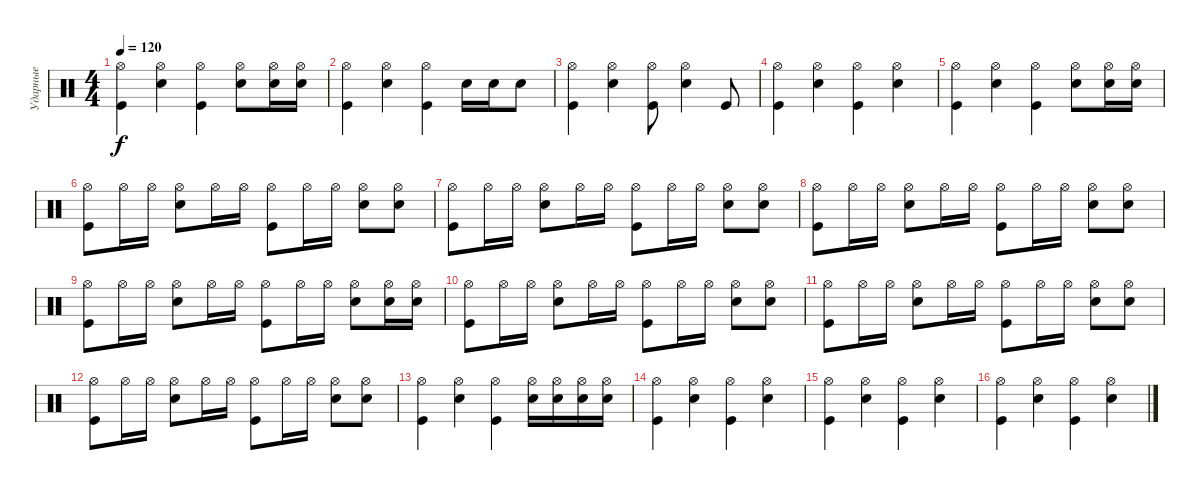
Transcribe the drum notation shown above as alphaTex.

\track ("Ударные" "Ударные") {instrument percussion}
\staff {score}
\articulation defaults
\ts (4 4)
\tempo 120
\clef neutral
\ks c
("Hi-Hat (open)" "Kick (hit)").4{dy f} ("Hi-Hat (open)" "Snare (hit) 2").4 ("Hi-Hat (open)" "Kick (hit)").4 ("Hi-Hat (open)" "Snare (hit) 2").8 ("Hi-Hat (open)" "Snare (hit) 2").16 ("Hi-Hat (open)" "Snare (hit) 2").16 |
("Kick (hit)" "Hi-Hat (open)").4 ("Snare (hit) 2" "Hi-Hat (open)").4 ("Kick (hit)" "Hi-Hat (open)").4 "Snare (hit) 2".16 "Snare (hit) 2".16 "Snare (hit) 2".8 |
("Hi-Hat (open)" "Kick (hit)").4 ("Hi-Hat (open)" "Snare (hit) 2").4 ("Hi-Hat (open)" "Kick (hit)").8 ("Hi-Hat (open)" "Snare (hit) 2").4 "Kick (hit)".8 |
("Hi-Hat (open)" "Kick (hit)").4 ("Hi-Hat (open)" "Snare (hit) 2").4 ("Hi-Hat (open)" "Kick (hit)").4 ("Hi-Hat (open)" "Snare (hit) 2").4 |
("Hi-Hat (open)" "Kick (hit)").4 ("Hi-Hat (open)" "Snare (hit) 2").4 ("Hi-Hat (open)" "Kick (hit)").4 ("Hi-Hat (open)" "Snare (hit) 2").8 ("Hi-Hat (open)" "Snare (hit) 2").16 ("Hi-Hat (open)" "Snare (hit) 2").16 |
("Hi-Hat (open)" "Kick (hit)").8 "Hi-Hat (open)".16 "Hi-Hat (open)".16 ("Hi-Hat (open)" "Snare (hit) 2").8 "Hi-Hat (open)".16 "Hi-Hat (open)".16 ("Hi-Hat (open)" "Kick (hit)").8 "Hi-Hat (open)".16 "Hi-Hat (open)".16 ("Snare (hit) 2" "Hi-Hat (open)").8 ("Snare (hit) 2" "Hi-Hat (open)").8 |
("Hi-Hat (open)" "Kick (hit)").8 "Hi-Hat (open)".16 "Hi-Hat (open)".16 ("Hi-Hat (open)" "Snare (hit) 2").8 "Hi-Hat (open)".16 "Hi-Hat (open)".16 ("Hi-Hat (open)" "Kick (hit)").8 "Hi-Hat (open)".16 "Hi-Hat (open)".16 ("Snare (hit) 2" "Hi-Hat (open)").8 ("Snare (hit) 2" "Hi-Hat (open)").8 |
("Hi-Hat (open)" "Kick (hit)").8 "Hi-Hat (open)".16 "Hi-Hat (open)".16 ("Hi-Hat (open)" "Snare (hit) 2").8 "Hi-Hat (open)".16 "Hi-Hat (open)".16 ("Hi-Hat (open)" "Kick (hit)").8 "Hi-Hat (open)".16 "Hi-Hat (open)".16 ("Snare (hit) 2" "Hi-Hat (open)").8 ("Snare (hit) 2" "Hi-Hat (open)").8 |
("Hi-Hat (open)" "Kick (hit)").8 "Hi-Hat (open)".16 "Hi-Hat (open)".16 ("Hi-Hat (open)" "Snare (hit) 2").8 "Hi-Hat (open)".16 "Hi-Hat (open)".16 ("Hi-Hat (open)" "Kick (hit)").8 "Hi-Hat (open)".16 "Hi-Hat (open)".16 ("Hi-Hat (open)" "Snare (hit) 2").8 ("Hi-Hat (open)" "Snare (hit) 2").16 ("Hi-Hat (open)" "Snare (hit) 2").16 |
("Hi-Hat (open)" "Kick (hit)").8 "Hi-Hat (open)".16 "Hi-Hat (open)".16 ("Hi-Hat (open)" "Snare (hit) 2").8 "Hi-Hat (open)".16 "Hi-Hat (open)".16 ("Hi-Hat (open)" "Kick (hit)").8 "Hi-Hat (open)".16 "Hi-Hat (open)".16 ("Snare (hit) 2" "Hi-Hat (open)").8 ("Snare (hit) 2" "Hi-Hat (open)").8 |
("Hi-Hat (open)" "Kick (hit)").8 "Hi-Hat (open)".16 "Hi-Hat (open)".16 ("Hi-Hat (open)" "Snare (hit) 2").8 "Hi-Hat (open)".16 "Hi-Hat (open)".16 ("Hi-Hat (open)" "Kick (hit)").8 "Hi-Hat (open)".16 "Hi-Hat (open)".16 ("Snare (hit) 2" "Hi-Hat (open)").8 ("Snare (hit) 2" "Hi-Hat (open)").8 |
("Hi-Hat (open)" "Kick (hit)").8 "Hi-Hat (open)".16 "Hi-Hat (open)".16 ("Hi-Hat (open)" "Snare (hit) 2").8 "Hi-Hat (open)".16 "Hi-Hat (open)".16 ("Hi-Hat (open)" "Kick (hit)").8 "Hi-Hat (open)".16 "Hi-Hat (open)".16 ("Snare (hit) 2" "Hi-Hat (open)").8 ("Snare (hit) 2" "Hi-Hat (open)").8 |
("Hi-Hat (open)" "Kick (hit)").4 ("Hi-Hat (open)" "Snare (hit) 2").4 ("Hi-Hat (open)" "Kick (hit)").4 ("Hi-Hat (open)" "Snare (hit) 2").16 ("Hi-Hat (open)" "Snare (hit) 2").16 ("Hi-Hat (open)" "Snare (hit) 2").16 ("Hi-Hat (open)" "Snare (hit) 2").16 |
("Hi-Hat (open)" "Kick (hit)").4 ("Hi-Hat (open)" "Snare (hit) 2").4 ("Hi-Hat (open)" "Kick (hit)").4 ("Hi-Hat (open)" "Snare (hit) 2").4 |
("Hi-Hat (open)" "Kick (hit)").4 ("Hi-Hat (open)" "Snare (hit) 2").4 ("Hi-Hat (open)" "Kick (hit)").4 ("Hi-Hat (open)" "Snare (hit) 2").4 |
("Hi-Hat (open)" "Kick (hit)").4 ("Hi-Hat (open)" "Snare (hit) 2").4 ("Hi-Hat (open)" "Kick (hit)").4 ("Hi-Hat (open)" "Snare (hit) 2").4
